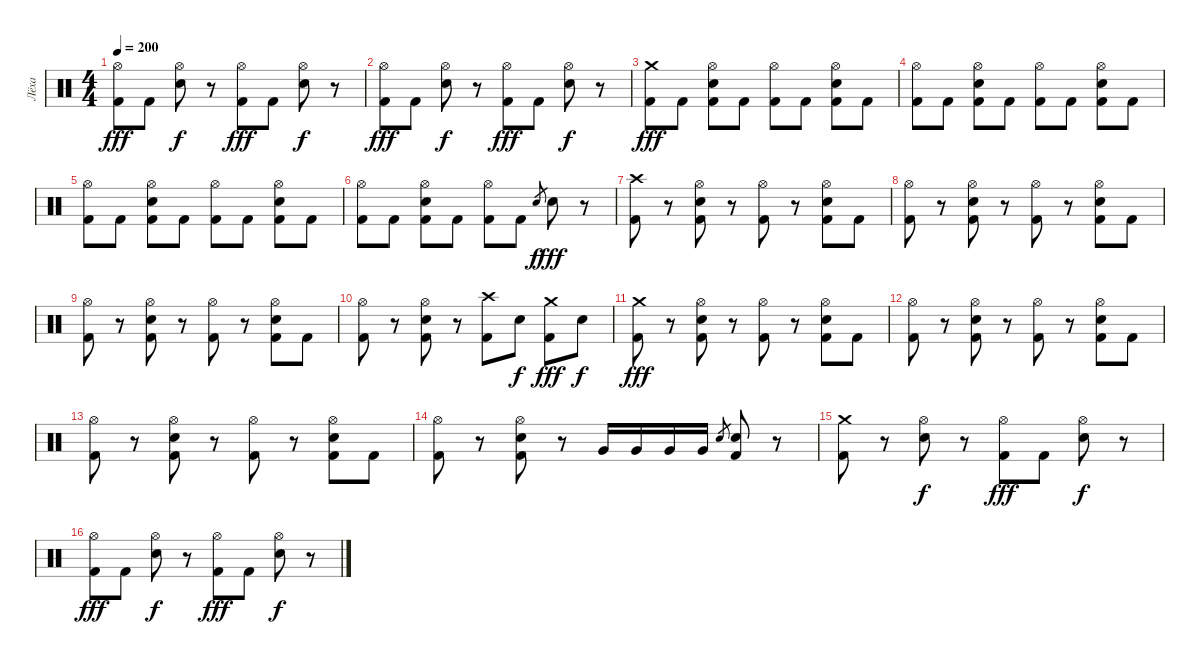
\track ("Лёха" "Лёха") {instrument percussion}
\staff {score}
\articulation defaults
\ts (4 4)
\tempo 200
\clef neutral
\ks c
("Hi-Hat (open)" "Kick (hit) 2").8{dy fff} "Kick (hit) 2".8 ("Hi-Hat (open)" "Electric Snare (hit)").8{dy f} r.8 ("Hi-Hat (open)" "Kick (hit) 2").8{dy fff} "Kick (hit) 2".8 ("Hi-Hat (open)" "Electric Snare (hit)").8{dy f} r.8 |
("Hi-Hat (open)" "Kick (hit) 2").8{dy fff} "Kick (hit) 2".8 ("Hi-Hat (open)" "Electric Snare (hit)").8{dy f} r.8 ("Hi-Hat (open)" "Kick (hit) 2").8{dy fff} "Kick (hit) 2".8 ("Hi-Hat (open)" "Electric Snare (hit)").8{dy f} r.8 |
("Crash medium (hit)" "Kick (hit) 2").8{dy fff} "Kick (hit) 2".8 ("Hi-Hat (open)" "Electric Snare (hit)" "Kick (hit) 2").8 "Kick (hit) 2".8 ("Hi-Hat (open)" "Kick (hit) 2").8 "Kick (hit) 2".8 ("Hi-Hat (open)" "Electric Snare (hit)" "Kick (hit) 2").8 "Kick (hit) 2".8 |
("Hi-Hat (open)" "Kick (hit) 2").8 "Kick (hit) 2".8 ("Hi-Hat (open)" "Electric Snare (hit)" "Kick (hit) 2").8 "Kick (hit) 2".8 ("Hi-Hat (open)" "Kick (hit) 2").8 "Kick (hit) 2".8 ("Hi-Hat (open)" "Electric Snare (hit)" "Kick (hit) 2").8 "Kick (hit) 2".8 |
("Hi-Hat (open)" "Kick (hit) 2").8 "Kick (hit) 2".8 ("Hi-Hat (open)" "Electric Snare (hit)" "Kick (hit) 2").8 "Kick (hit) 2".8 ("Hi-Hat (open)" "Kick (hit) 2").8 "Kick (hit) 2".8 ("Hi-Hat (open)" "Electric Snare (hit)" "Kick (hit) 2").8 "Kick (hit) 2".8 |
("Hi-Hat (open)" "Kick (hit) 2").8 "Kick (hit) 2".8 ("Hi-Hat (open)" "Electric Snare (hit)" "Kick (hit) 2").8 "Kick (hit) 2".8 ("Hi-Hat (open)" "Kick (hit) 2").8 "Kick (hit) 2".8 "Electric Snare (hit)".8{gr dy f} "Electric Snare (hit)".8{dy fff} r.8 |
("Crash high (hit)" "Kick (hit) 2").8 r.8 ("Hi-Hat (open)" "Electric Snare (hit)" "Kick (hit) 2").8 r.8 ("Hi-Hat (open)" "Kick (hit) 2").8 r.8 ("Hi-Hat (open)" "Electric Snare (hit)" "Kick (hit) 2").8 "Kick (hit) 2".8 |
("Hi-Hat (open)" "Kick (hit) 2").8 r.8 ("Hi-Hat (open)" "Electric Snare (hit)" "Kick (hit) 2").8 r.8 ("Hi-Hat (open)" "Kick (hit) 2").8 r.8 ("Hi-Hat (open)" "Electric Snare (hit)" "Kick (hit) 2").8 "Kick (hit) 2".8 |
("Hi-Hat (open)" "Kick (hit) 2").8 r.8 ("Hi-Hat (open)" "Electric Snare (hit)" "Kick (hit) 2").8 r.8 ("Hi-Hat (open)" "Kick (hit) 2").8 r.8 ("Hi-Hat (open)" "Electric Snare (hit)" "Kick (hit) 2").8 "Kick (hit) 2".8 |
("Hi-Hat (open)" "Kick (hit) 2").8 r.8 ("Hi-Hat (open)" "Electric Snare (hit)" "Kick (hit) 2").8 r.8 ("Crash high (hit)" "Kick (hit) 2").8 "Electric Snare (hit)".8{dy f} ("Crash medium (hit)" "Kick (hit) 2").8{dy fff} "Electric Snare (hit)".8{dy f} |
("Crash medium (hit)" "Kick (hit) 2").8{dy fff} r.8 ("Hi-Hat (open)" "Electric Snare (hit)" "Kick (hit) 2").8 r.8 ("Hi-Hat (open)" "Kick (hit) 2").8 r.8 ("Hi-Hat (open)" "Electric Snare (hit)" "Kick (hit) 2").8 "Kick (hit) 2".8 |
("Hi-Hat (open)" "Kick (hit) 2").8 r.8 ("Hi-Hat (open)" "Electric Snare (hit)" "Kick (hit) 2").8 r.8 ("Hi-Hat (open)" "Kick (hit) 2").8 r.8 ("Hi-Hat (open)" "Electric Snare (hit)" "Kick (hit) 2").8 "Kick (hit) 2".8 |
("Hi-Hat (open)" "Kick (hit) 2").8 r.8 ("Hi-Hat (open)" "Electric Snare (hit)" "Kick (hit) 2").8 r.8 ("Hi-Hat (open)" "Kick (hit) 2").8 r.8 ("Hi-Hat (open)" "Electric Snare (hit)" "Kick (hit) 2").8 "Kick (hit) 2".8 |
("Hi-Hat (open)" "Kick (hit) 2").8 r.8 ("Hi-Hat (open)" "Electric Snare (hit)" "Kick (hit) 2").8 r.8 "Very Low Tom (hit)".16 "Very Low Tom (hit)".16 "Very Low Tom (hit)".16 "Very Low Tom (hit)".16 "Electric Snare (hit)".8{gr} ("Electric Snare (hit)" "Kick (hit) 2").8 r.8 |
("Crash medium (hit)" "Kick (hit) 2").8 r.8 ("Hi-Hat (open)" "Electric Snare (hit)").8{dy f} r.8 ("Hi-Hat (open)" "Kick (hit) 2").8{dy fff} "Kick (hit) 2".8 ("Hi-Hat (open)" "Electric Snare (hit)").8{dy f} r.8 |
("Hi-Hat (open)" "Kick (hit) 2").8{dy fff} "Kick (hit) 2".8 ("Hi-Hat (open)" "Electric Snare (hit)").8{dy f} r.8 ("Hi-Hat (open)" "Kick (hit) 2").8{dy fff} "Kick (hit) 2".8 ("Hi-Hat (open)" "Electric Snare (hit)").8{dy f} r.8
